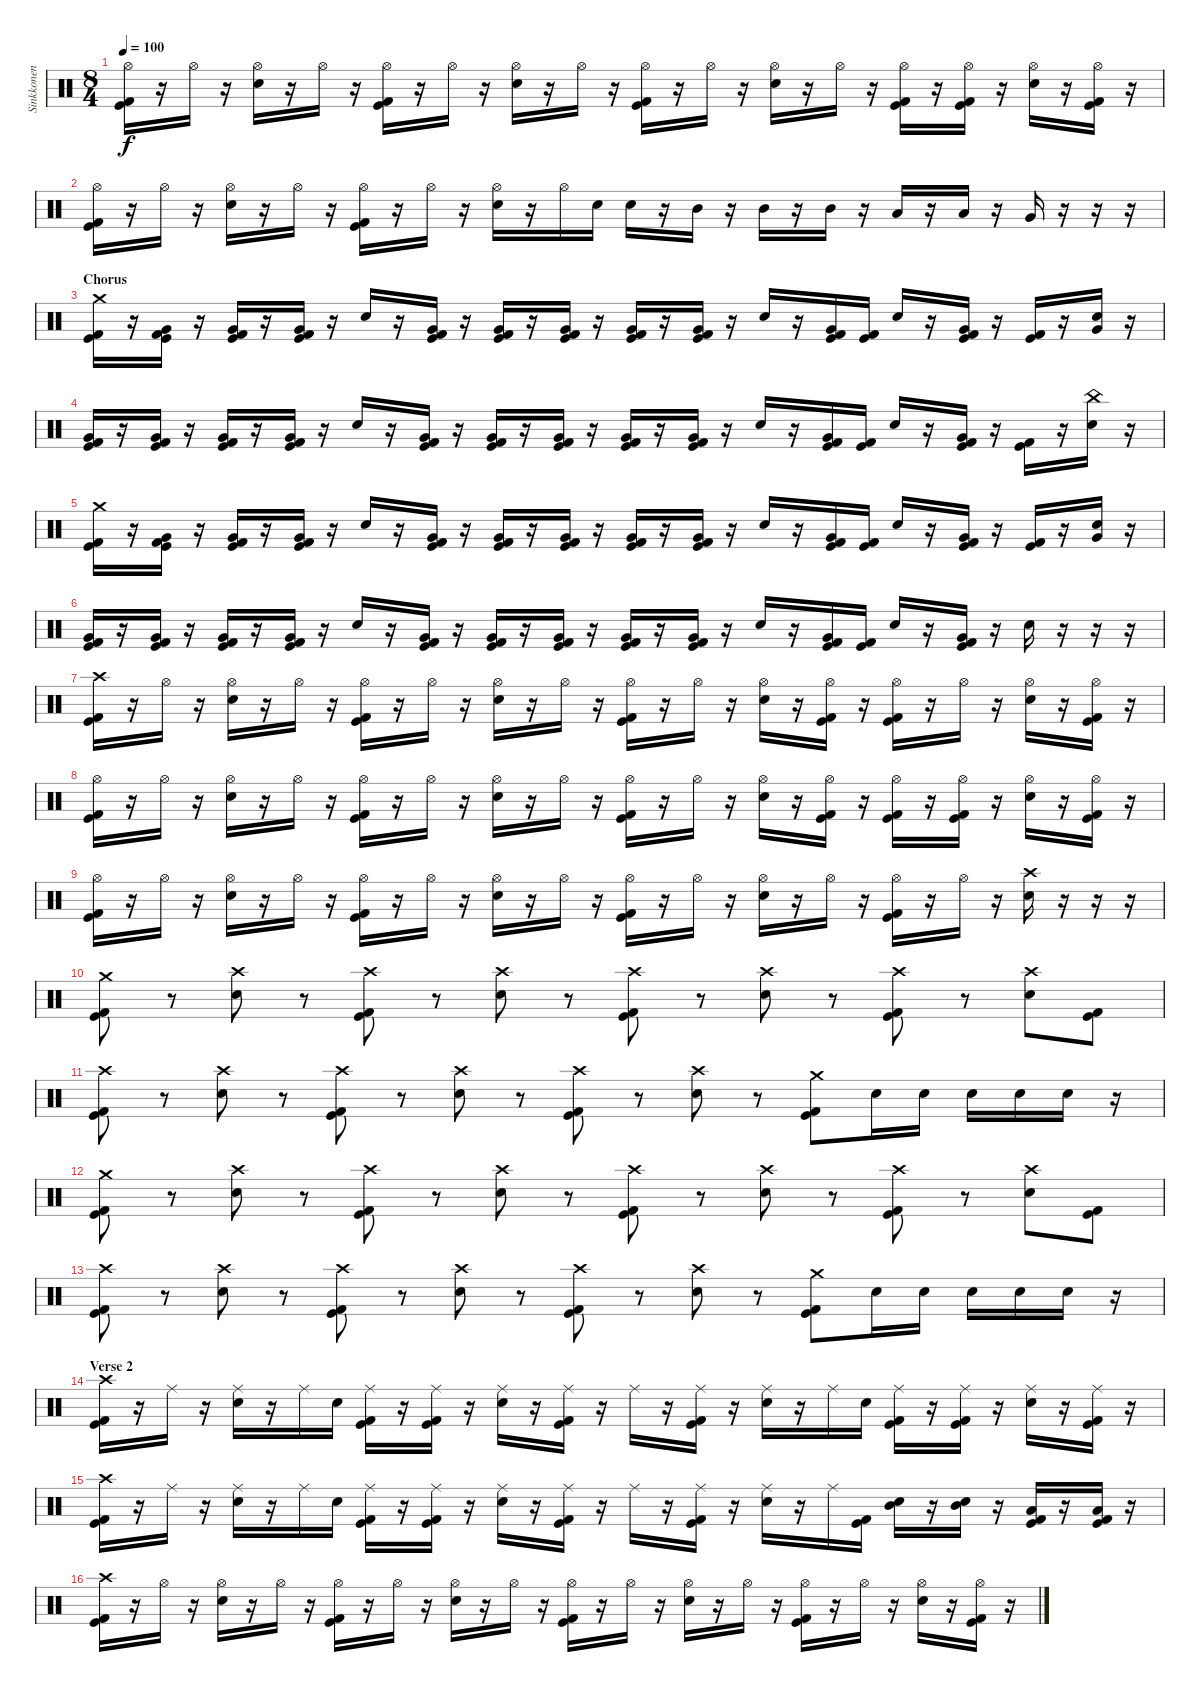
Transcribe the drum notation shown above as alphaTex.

\track ("Sinkkonen" "Sinkkonen") {instrument percussion}
\staff {score}
\articulation defaults
\ts (8 4)
\tempo 100
\clef neutral
\ks c
("Hi-Hat (open)" "Kick (hit) 2" "Kick (hit)").16{dy f} r.16 "Hi-Hat (open)".16 r.16 ("Hi-Hat (open)" "Electric Snare (hit)").16 r.16 "Hi-Hat (open)".16 r.16 ("Hi-Hat (open)" "Kick (hit) 2" "Kick (hit)").16 r.16 "Hi-Hat (open)".16 r.16 ("Hi-Hat (open)" "Electric Snare (hit)").16 r.16 "Hi-Hat (open)".16 r.16 ("Hi-Hat (open)" "Kick (hit) 2" "Kick (hit)").16 r.16 "Hi-Hat (open)".16 r.16 ("Hi-Hat (open)" "Electric Snare (hit)").16 r.16 "Hi-Hat (open)".16 r.16 ("Hi-Hat (open)" "Kick (hit) 2" "Kick (hit)").16 r.16 ("Hi-Hat (open)" "Kick (hit) 2" "Kick (hit)").16 r.16 ("Hi-Hat (open)" "Electric Snare (hit)").16 r.16 ("Hi-Hat (open)" "Kick (hit) 2" "Kick (hit)").16 r.16 |
("Hi-Hat (open)" "Kick (hit) 2" "Kick (hit)").16 r.16 "Hi-Hat (open)".16 r.16 ("Hi-Hat (open)" "Electric Snare (hit)").16 r.16 "Hi-Hat (open)".16 r.16 ("Hi-Hat (open)" "Kick (hit) 2" "Kick (hit)").16 r.16 "Hi-Hat (open)".16 r.16 ("Hi-Hat (open)" "Electric Snare (hit)").16 r.16 "Hi-Hat (open)".16 "Electric Snare (hit)".16 "Electric Snare (hit)".16 r.16 "Mid Tom (hit)".16 r.16 "Mid Tom (hit)".16 r.16 "Mid Tom (hit)".16 r.16 "Low Tom (hit)".16 r.16 "Low Tom (hit)".16 r.16 "Very Low Tom (hit)".16 r.16 r.16 r.16 |
\section ("" "Chorus")
("Crash medium (hit)" "Kick (hit) 2" "Kick (hit)").16 r.16 ("Very Low Tom (hit)" "Kick (hit) 2" "Kick (hit)").16 r.16 ("Very Low Tom (hit)" "Kick (hit) 2" "Kick (hit)").16 r.16 ("Very Low Tom (hit)" "Kick (hit) 2" "Kick (hit)").16 r.16 "Electric Snare (hit)".16 r.16 ("Very Low Tom (hit)" "Kick (hit) 2" "Kick (hit)").16 r.16 ("Very Low Tom (hit)" "Kick (hit) 2" "Kick (hit)").16 r.16 ("Very Low Tom (hit)" "Kick (hit) 2" "Kick (hit)").16 r.16 ("Very Low Tom (hit)" "Kick (hit) 2" "Kick (hit)").16 r.16 ("Very Low Tom (hit)" "Kick (hit) 2" "Kick (hit)").16 r.16 "Electric Snare (hit)".16 r.16 ("Very Low Tom (hit)" "Kick (hit) 2" "Kick (hit)").16 ("Kick (hit) 2" "Kick (hit)").16 "Electric Snare (hit)".16 r.16 ("Very Low Tom (hit)" "Kick (hit) 2" "Kick (hit)").16 r.16 ("Kick (hit) 2" "Kick (hit)").16 r.16 ("Very Low Tom (hit)" "Electric Snare (hit)").16 r.16 |
("Very Low Tom (hit)" "Kick (hit) 2" "Kick (hit)").16 r.16 ("Very Low Tom (hit)" "Kick (hit) 2" "Kick (hit)").16 r.16 ("Very Low Tom (hit)" "Kick (hit) 2" "Kick (hit)").16 r.16 ("Very Low Tom (hit)" "Kick (hit) 2" "Kick (hit)").16 r.16 "Electric Snare (hit)".16 r.16 ("Very Low Tom (hit)" "Kick (hit) 2" "Kick (hit)").16 r.16 ("Very Low Tom (hit)" "Kick (hit) 2" "Kick (hit)").16 r.16 ("Very Low Tom (hit)" "Kick (hit) 2" "Kick (hit)").16 r.16 ("Very Low Tom (hit)" "Kick (hit) 2" "Kick (hit)").16 r.16 ("Very Low Tom (hit)" "Kick (hit) 2" "Kick (hit)").16 r.16 "Electric Snare (hit)".16 r.16 ("Very Low Tom (hit)" "Kick (hit) 2" "Kick (hit)").16 ("Kick (hit) 2" "Kick (hit)").16 "Electric Snare (hit)".16 r.16 ("Very Low Tom (hit)" "Kick (hit) 2" "Kick (hit)").16 r.16 ("Kick (hit) 2" "Kick (hit)").16 r.16 ("China (hit)" "Electric Snare (hit)").16 r.16 |
("Crash medium (hit)" "Kick (hit) 2" "Kick (hit)").16 r.16 ("Very Low Tom (hit)" "Kick (hit) 2" "Kick (hit)").16 r.16 ("Very Low Tom (hit)" "Kick (hit) 2" "Kick (hit)").16 r.16 ("Very Low Tom (hit)" "Kick (hit) 2" "Kick (hit)").16 r.16 "Electric Snare (hit)".16 r.16 ("Very Low Tom (hit)" "Kick (hit) 2" "Kick (hit)").16 r.16 ("Very Low Tom (hit)" "Kick (hit) 2" "Kick (hit)").16 r.16 ("Very Low Tom (hit)" "Kick (hit) 2" "Kick (hit)").16 r.16 ("Very Low Tom (hit)" "Kick (hit) 2" "Kick (hit)").16 r.16 ("Very Low Tom (hit)" "Kick (hit) 2" "Kick (hit)").16 r.16 "Electric Snare (hit)".16 r.16 ("Very Low Tom (hit)" "Kick (hit) 2" "Kick (hit)").16 ("Kick (hit) 2" "Kick (hit)").16 "Electric Snare (hit)".16 r.16 ("Very Low Tom (hit)" "Kick (hit) 2" "Kick (hit)").16 r.16 ("Kick (hit) 2" "Kick (hit)").16 r.16 ("Very Low Tom (hit)" "Electric Snare (hit)").16 r.16 |
("Very Low Tom (hit)" "Kick (hit) 2" "Kick (hit)").16 r.16 ("Very Low Tom (hit)" "Kick (hit) 2" "Kick (hit)").16 r.16 ("Very Low Tom (hit)" "Kick (hit) 2" "Kick (hit)").16 r.16 ("Very Low Tom (hit)" "Kick (hit) 2" "Kick (hit)").16 r.16 "Electric Snare (hit)".16 r.16 ("Very Low Tom (hit)" "Kick (hit) 2" "Kick (hit)").16 r.16 ("Very Low Tom (hit)" "Kick (hit) 2" "Kick (hit)").16 r.16 ("Very Low Tom (hit)" "Kick (hit) 2" "Kick (hit)").16 r.16 ("Very Low Tom (hit)" "Kick (hit) 2" "Kick (hit)").16 r.16 ("Very Low Tom (hit)" "Kick (hit) 2" "Kick (hit)").16 r.16 "Electric Snare (hit)".16 r.16 ("Very Low Tom (hit)" "Kick (hit) 2" "Kick (hit)").16 ("Kick (hit) 2" "Kick (hit)").16 "Electric Snare (hit)".16 r.16 ("Very Low Tom (hit)" "Kick (hit) 2" "Kick (hit)").16 r.16 "Electric Snare (hit)".16 r.16 r.16 r.16 |
("Crash high (hit)" "Kick (hit) 2" "Kick (hit)").16 r.16 "Hi-Hat (open)".16 r.16 ("Hi-Hat (open)" "Electric Snare (hit)").16 r.16 "Hi-Hat (open)".16 r.16 ("Hi-Hat (open)" "Kick (hit) 2" "Kick (hit)").16 r.16 "Hi-Hat (open)".16 r.16 ("Hi-Hat (open)" "Electric Snare (hit)").16 r.16 "Hi-Hat (open)".16 r.16 ("Hi-Hat (open)" "Kick (hit) 2" "Kick (hit)").16 r.16 "Hi-Hat (open)".16 r.16 ("Hi-Hat (open)" "Electric Snare (hit)").16 r.16 ("Hi-Hat (open)" "Kick (hit)" "Kick (hit) 2").16 r.16 ("Hi-Hat (open)" "Kick (hit) 2" "Kick (hit)").16 r.16 "Hi-Hat (open)".16 r.16 ("Hi-Hat (open)" "Electric Snare (hit)").16 r.16 ("Hi-Hat (open)" "Kick (hit) 2" "Kick (hit)").16 r.16 |
("Hi-Hat (open)" "Kick (hit) 2" "Kick (hit)").16 r.16 "Hi-Hat (open)".16 r.16 ("Hi-Hat (open)" "Electric Snare (hit)").16 r.16 "Hi-Hat (open)".16 r.16 ("Hi-Hat (open)" "Kick (hit) 2" "Kick (hit)").16 r.16 "Hi-Hat (open)".16 r.16 ("Hi-Hat (open)" "Electric Snare (hit)").16 r.16 "Hi-Hat (open)".16 r.16 ("Hi-Hat (open)" "Kick (hit) 2" "Kick (hit)").16 r.16 "Hi-Hat (open)".16 r.16 ("Hi-Hat (open)" "Electric Snare (hit)").16 r.16 ("Hi-Hat (open)" "Kick (hit) 2" "Kick (hit)").16 r.16 ("Hi-Hat (open)" "Kick (hit) 2" "Kick (hit)").16 r.16 ("Hi-Hat (open)" "Kick (hit) 2" "Kick (hit)").16 r.16 ("Hi-Hat (open)" "Electric Snare (hit)").16 r.16 ("Hi-Hat (open)" "Kick (hit) 2" "Kick (hit)").16 r.16 |
("Hi-Hat (open)" "Kick (hit) 2" "Kick (hit)").16 r.16 "Hi-Hat (open)".16 r.16 ("Hi-Hat (open)" "Electric Snare (hit)").16 r.16 "Hi-Hat (open)".16 r.16 ("Hi-Hat (open)" "Kick (hit) 2" "Kick (hit)").16 r.16 "Hi-Hat (open)".16 r.16 ("Hi-Hat (open)" "Electric Snare (hit)").16 r.16 "Hi-Hat (open)".16 r.16 ("Hi-Hat (open)" "Kick (hit) 2" "Kick (hit)").16 r.16 "Hi-Hat (open)".16 r.16 ("Hi-Hat (open)" "Electric Snare (hit)").16 r.16 "Hi-Hat (open)".16 r.16 ("Hi-Hat (open)" "Kick (hit) 2" "Kick (hit)").16 r.16 "Hi-Hat (open)".16 r.16 ("Crash high (hit)" "Electric Snare (hit)").16 r.16 r.16 r.16 |
("Crash medium (hit)" "Kick (hit) 2" "Kick (hit)").8 r.8 ("Crash high (hit)" "Electric Snare (hit)").8 r.8 ("Crash high (hit)" "Kick (hit) 2" "Kick (hit)").8 r.8 ("Crash high (hit)" "Electric Snare (hit)").8 r.8 ("Crash high (hit)" "Kick (hit) 2" "Kick (hit)").8 r.8 ("Crash high (hit)" "Electric Snare (hit)").8 r.8 ("Crash high (hit)" "Kick (hit) 2" "Kick (hit)").8 r.8 ("Crash high (hit)" "Electric Snare (hit)").8 ("Kick (hit) 2" "Kick (hit)").8 |
("Crash high (hit)" "Kick (hit) 2" "Kick (hit)").8 r.8 ("Crash high (hit)" "Electric Snare (hit)").8 r.8 ("Crash high (hit)" "Kick (hit) 2" "Kick (hit)").8 r.8 ("Crash high (hit)" "Electric Snare (hit)").8 r.8 ("Crash high (hit)" "Kick (hit) 2" "Kick (hit)").8 r.8 ("Crash high (hit)" "Electric Snare (hit)").8 r.8 ("Crash medium (hit)" "Kick (hit) 2" "Kick (hit)").8 "Electric Snare (hit)".16 "Electric Snare (hit)".16 "Electric Snare (hit)".16 "Electric Snare (hit)".16 "Electric Snare (hit)".16 r.16 |
("Crash medium (hit)" "Kick (hit) 2" "Kick (hit)").8 r.8 ("Crash high (hit)" "Electric Snare (hit)").8 r.8 ("Crash high (hit)" "Kick (hit) 2" "Kick (hit)").8 r.8 ("Crash high (hit)" "Electric Snare (hit)").8 r.8 ("Crash high (hit)" "Kick (hit) 2" "Kick (hit)").8 r.8 ("Crash high (hit)" "Electric Snare (hit)").8 r.8 ("Crash high (hit)" "Kick (hit) 2" "Kick (hit)").8 r.8 ("Crash high (hit)" "Electric Snare (hit)").8 ("Kick (hit) 2" "Kick (hit)").8 |
("Crash high (hit)" "Kick (hit) 2" "Kick (hit)").8 r.8 ("Crash high (hit)" "Electric Snare (hit)").8 r.8 ("Crash high (hit)" "Kick (hit) 2" "Kick (hit)").8 r.8 ("Crash high (hit)" "Electric Snare (hit)").8 r.8 ("Crash high (hit)" "Kick (hit) 2" "Kick (hit)").8 r.8 ("Crash high (hit)" "Electric Snare (hit)").8 r.8 ("Crash medium (hit)" "Kick (hit) 2" "Kick (hit)").8 "Electric Snare (hit)".16 "Electric Snare (hit)".16 "Electric Snare (hit)".16 "Electric Snare (hit)".16 "Electric Snare (hit)".16 r.16 |
\section ("" "Verse 2")
("Crash high (hit)" "Kick (hit) 2" "Kick (hit)").16 r.16 "Ride (middle)".16 r.16 ("Ride (middle)" "Electric Snare (hit)").16 r.16 "Ride (middle)".16 "Electric Snare (hit)".16 ("Ride (middle)" "Kick (hit) 2" "Kick (hit)").16 r.16 ("Ride (middle)" "Kick (hit) 2" "Kick (hit)").16 r.16 ("Ride (middle)" "Electric Snare (hit)").16 r.16 ("Ride (middle)" "Kick (hit) 2" "Kick (hit)").16 r.16 "Ride (middle)".16 r.16 ("Ride (middle)" "Kick (hit) 2" "Kick (hit)").16 r.16 ("Ride (middle)" "Electric Snare (hit)").16 r.16 "Ride (middle)".16 "Electric Snare (hit)".16 ("Ride (middle)" "Kick (hit) 2" "Kick (hit)").16 r.16 ("Ride (middle)" "Kick (hit) 2" "Kick (hit)").16 r.16 ("Ride (middle)" "Electric Snare (hit)").16 r.16 ("Ride (middle)" "Kick (hit) 2" "Kick (hit)").16 r.16 |
("Crash high (hit)" "Kick (hit) 2" "Kick (hit)").16 r.16 "Ride (middle)".16 r.16 ("Ride (middle)" "Electric Snare (hit)").16 r.16 "Ride (middle)".16 "Electric Snare (hit)".16 ("Ride (middle)" "Kick (hit) 2" "Kick (hit)").16 r.16 ("Ride (middle)" "Kick (hit) 2" "Kick (hit)").16 r.16 ("Ride (middle)" "Electric Snare (hit)").16 r.16 ("Ride (middle)" "Kick (hit) 2" "Kick (hit)").16 r.16 "Ride (middle)".16 r.16 ("Ride (middle)" "Kick (hit) 2" "Kick (hit)").16 r.16 ("Ride (middle)" "Electric Snare (hit)").16 r.16 "Ride (middle)".16 ("Kick (hit) 2" "Kick (hit)").16 ("Mid Tom (hit)" "Electric Snare (hit)").16 r.16 ("Mid Tom (hit)" "Electric Snare (hit)").16 r.16 ("Low Tom (hit)" "Kick (hit) 2" "Kick (hit)").16 r.16 ("Low Tom (hit)" "Kick (hit) 2" "Kick (hit)").16 r.16 |
("Crash high (hit)" "Kick (hit) 2" "Kick (hit)").16 r.16 "Hi-Hat (open)".16 r.16 ("Hi-Hat (open)" "Electric Snare (hit)").16 r.16 "Hi-Hat (open)".16 r.16 ("Hi-Hat (open)" "Kick (hit) 2" "Kick (hit)").16 r.16 "Hi-Hat (open)".16 r.16 ("Hi-Hat (open)" "Electric Snare (hit)").16 r.16 "Hi-Hat (open)".16 r.16 ("Hi-Hat (open)" "Kick (hit) 2" "Kick (hit)").16 r.16 "Hi-Hat (open)".16 r.16 ("Hi-Hat (open)" "Electric Snare (hit)").16 r.16 "Hi-Hat (open)".16 r.16 ("Hi-Hat (open)" "Kick (hit) 2" "Kick (hit)").16 r.16 "Hi-Hat (open)".16 r.16 ("Hi-Hat (open)" "Electric Snare (hit)").16 r.16 ("Hi-Hat (open)" "Kick (hit) 2" "Kick (hit)").16 r.16
